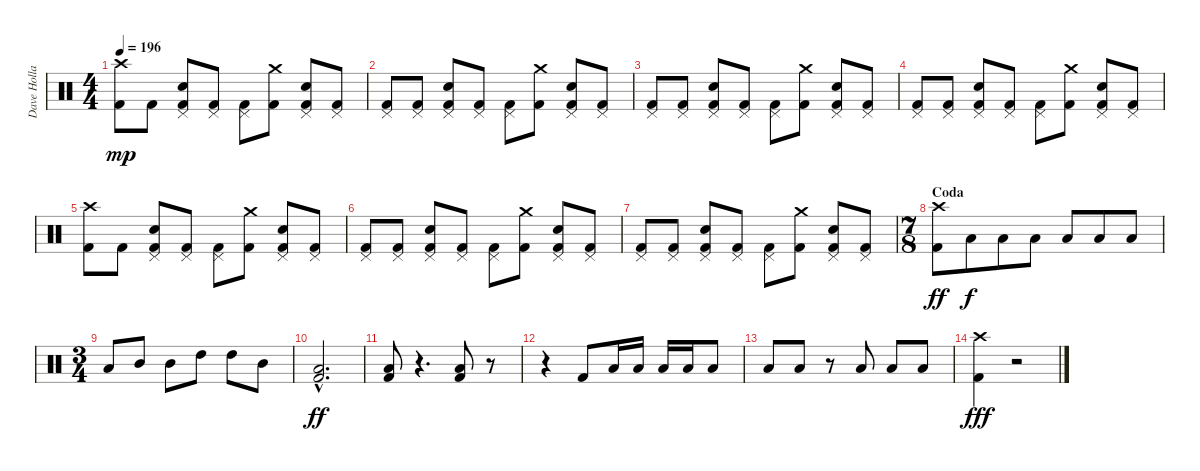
\track ("Dave Holland" "Dave Holla") {instrument percussion}
\staff {score}
\articulation defaults
\ts (4 4)
\tempo 196
\clef neutral
\ks c
("Crash high (hit)" "Kick (hit) 2").8{dy mp} "Kick (hit) 2".8 ("Pedal Hi-Hat (hit)" "Snare (hit) 2" "Kick (hit) 2").8 ("Pedal Hi-Hat (hit)" "Kick (hit) 2").8 ("Pedal Hi-Hat (hit)" "Kick (hit) 2").8 ("Crash medium (hit)" "Kick (hit) 2").8 ("Pedal Hi-Hat (hit)" "Snare (hit) 2" "Kick (hit) 2").8 ("Pedal Hi-Hat (hit)" "Kick (hit) 2").8 |
("Pedal Hi-Hat (hit)" "Kick (hit) 2").8 ("Pedal Hi-Hat (hit)" "Kick (hit) 2").8 ("Pedal Hi-Hat (hit)" "Snare (hit) 2" "Kick (hit) 2").8 ("Pedal Hi-Hat (hit)" "Kick (hit) 2").8 ("Pedal Hi-Hat (hit)" "Kick (hit) 2").8 ("Crash medium (hit)" "Kick (hit) 2").8 ("Pedal Hi-Hat (hit)" "Snare (hit) 2" "Kick (hit) 2").8 ("Pedal Hi-Hat (hit)" "Kick (hit) 2").8 |
("Pedal Hi-Hat (hit)" "Kick (hit) 2").8 ("Pedal Hi-Hat (hit)" "Kick (hit) 2").8 ("Pedal Hi-Hat (hit)" "Snare (hit) 2" "Kick (hit) 2").8 ("Pedal Hi-Hat (hit)" "Kick (hit) 2").8 ("Pedal Hi-Hat (hit)" "Kick (hit) 2").8 ("Crash medium (hit)" "Kick (hit) 2").8 ("Pedal Hi-Hat (hit)" "Snare (hit) 2" "Kick (hit) 2").8 ("Pedal Hi-Hat (hit)" "Kick (hit) 2").8 |
("Pedal Hi-Hat (hit)" "Kick (hit) 2").8 ("Pedal Hi-Hat (hit)" "Kick (hit) 2").8 ("Pedal Hi-Hat (hit)" "Snare (hit) 2" "Kick (hit) 2").8 ("Pedal Hi-Hat (hit)" "Kick (hit) 2").8 ("Pedal Hi-Hat (hit)" "Kick (hit) 2").8 ("Crash medium (hit)" "Kick (hit) 2").8 ("Pedal Hi-Hat (hit)" "Snare (hit) 2" "Kick (hit) 2").8 ("Pedal Hi-Hat (hit)" "Kick (hit) 2").8 |
("Crash high (hit)" "Kick (hit) 2").8 "Kick (hit) 2".8 ("Pedal Hi-Hat (hit)" "Snare (hit) 2" "Kick (hit) 2").8 ("Pedal Hi-Hat (hit)" "Kick (hit) 2").8 ("Pedal Hi-Hat (hit)" "Kick (hit) 2").8 ("Crash medium (hit)" "Kick (hit) 2").8 ("Pedal Hi-Hat (hit)" "Snare (hit) 2" "Kick (hit) 2").8 ("Pedal Hi-Hat (hit)" "Kick (hit) 2").8 |
("Pedal Hi-Hat (hit)" "Kick (hit) 2").8 ("Pedal Hi-Hat (hit)" "Kick (hit) 2").8 ("Pedal Hi-Hat (hit)" "Snare (hit) 2" "Kick (hit) 2").8 ("Pedal Hi-Hat (hit)" "Kick (hit) 2").8 ("Pedal Hi-Hat (hit)" "Kick (hit) 2").8 ("Crash medium (hit)" "Kick (hit) 2").8 ("Pedal Hi-Hat (hit)" "Snare (hit) 2" "Kick (hit) 2").8 ("Pedal Hi-Hat (hit)" "Kick (hit) 2").8 |
("Pedal Hi-Hat (hit)" "Kick (hit) 2").8 ("Pedal Hi-Hat (hit)" "Kick (hit) 2").8 ("Pedal Hi-Hat (hit)" "Snare (hit) 2" "Kick (hit) 2").8 ("Pedal Hi-Hat (hit)" "Kick (hit) 2").8 ("Pedal Hi-Hat (hit)" "Kick (hit) 2").8 ("Crash medium (hit)" "Kick (hit) 2").8 ("Pedal Hi-Hat (hit)" "Snare (hit) 2" "Kick (hit) 2").8 ("Pedal Hi-Hat (hit)" "Kick (hit) 2").8 |
\ts (7 8)
\section ("" "Coda")
("Crash high (hit)" "Kick (hit) 2").8{dy ff} "Low Floor Tom (hit)".8{dy f} "Low Tom (hit)".8 "Low Tom (hit)".8 "Low Floor Tom (hit)".8 "Low Floor Tom (hit)".8 "Low Tom (hit)".8 |
\ts (3 4)
"Low Tom (hit)".8 "Mid Tom (hit)".8 "Mid Tom (hit)".8 "High Tom (hit)".8 "High Tom (hit)".8 "Mid Tom (hit)".8 |
("Low Tom (hit)"{hac} "Kick (hit) 2"{hac}).2{d dy ff} |
("Low Tom (hit)" "Kick (hit) 2").8 r.4{d} ("Low Tom (hit)" "Kick (hit) 2").8 r.8 |
r.4 "Kick (hit) 2".8 "Low Tom (hit)".16 "Low Tom (hit)".16 "Low Tom (hit)".16 "Low Tom (hit)".16 "Low Tom (hit)".8 |
"Low Tom (hit)".8 "Low Tom (hit)".8 r.8 "Low Tom (hit)".8 "Low Tom (hit)".8 "Low Tom (hit)".8 |
("Crash high (hit)" "Kick (hit) 2").4{dy fff} r.2
